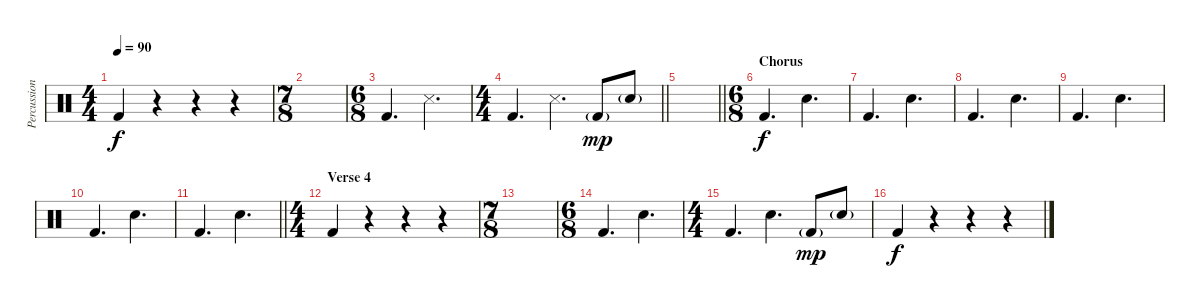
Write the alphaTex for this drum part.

\track ("Percussion" "Percussion") {instrument percussion}
\staff {score}
\articulation defaults
\ts (4 4)
\tempo 90
\clef neutral
\ks c "Kick (hit) 2".4{dy f}
r.4 r.4 r.4 |
\ts (7 8)
|
\ts (6 8)
"Kick (hit) 2".4{d} "Snare (side stick) 3".4{d} |
\ts (4 4)
\barLineRight lightlight "Kick (hit) 2".4{d} "Snare (side stick) 3".4{d} "Kick (hit) 2"{g}.8{dy mp} "Snare (hit) 2"{g}.8
|
\barLineRight lightlight
|
\ts (6 8)
\section ("" "Chorus")
"Kick (hit) 2".4{d dy f} "Snare (hit) 2".4{d} |
"Kick (hit) 2".4{d} "Snare (hit) 2".4{d} |
"Kick (hit) 2".4{d} "Snare (hit) 2".4{d} |
"Kick (hit) 2".4{d} "Snare (hit) 2".4{d} |
"Kick (hit) 2".4{d} "Snare (hit) 2".4{d} |
\barLineRight lightlight "Kick (hit) 2".4{d} "Snare (hit) 2".4{d}
|
\ts (4 4)
\section ("" "Verse 4")
"Kick (hit) 2".4 r.4 r.4 r.4 |
\ts (7 8)
|
\ts (6 8)
"Kick (hit) 2".4{d} "Snare (hit) 2".4{d} |
\ts (4 4)
"Kick (hit) 2".4{d} "Snare (hit) 2".4{d} "Kick (hit) 2"{g}.8{dy mp} "Snare (hit) 2"{g}.8 |
"Kick (hit) 2".4{dy f} r.4 r.4 r.4
